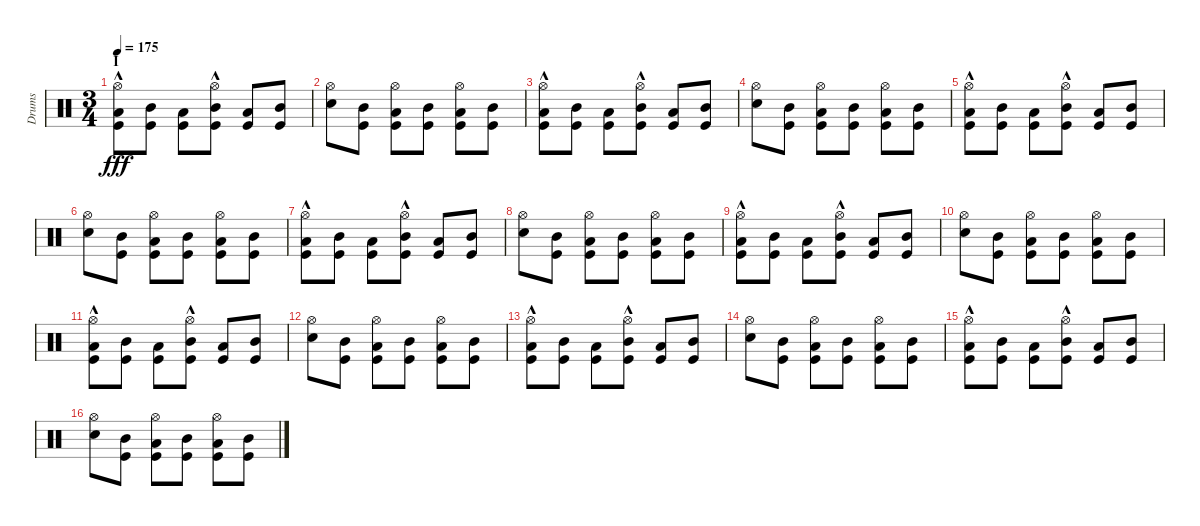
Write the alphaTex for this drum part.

\track ("Drums" "Drums") {instrument percussion}
\staff {score}
\articulation defaults
\ts (3 4)
\section ("" "I")
\tempo 175
\clef neutral
\ks c
("Hi-Hat (open)" "Low Tom (hit)"{hac} "Kick (hit)").8{dy fff} ("Mid Tom (hit)" "Kick (hit)").8 ("Low Tom (hit)" "Kick (hit)").8 ("Hi-Hat (open)" "Mid Tom (hit)"{hac} "Kick (hit)").8 ("Low Tom (hit)" "Kick (hit)").8 ("Mid Tom (hit)" "Kick (hit)").8 |
("Hi-Hat (open)" "Snare (hit) 2").8 ("Mid Tom (hit)" "Kick (hit)").8 ("Hi-Hat (open)" "Low Tom (hit)" "Kick (hit)").8 ("Mid Tom (hit)" "Kick (hit)").8 ("Hi-Hat (open)" "Low Tom (hit)" "Kick (hit)").8 ("Mid Tom (hit)" "Kick (hit)").8 |
("Hi-Hat (open)" "Low Tom (hit)"{hac} "Kick (hit)").8 ("Mid Tom (hit)" "Kick (hit)").8 ("Low Tom (hit)" "Kick (hit)").8 ("Hi-Hat (open)" "Mid Tom (hit)"{hac} "Kick (hit)").8 ("Low Tom (hit)" "Kick (hit)").8 ("Mid Tom (hit)" "Kick (hit)").8 |
("Hi-Hat (open)" "Snare (hit) 2").8 ("Mid Tom (hit)" "Kick (hit)").8 ("Hi-Hat (open)" "Low Tom (hit)" "Kick (hit)").8 ("Mid Tom (hit)" "Kick (hit)").8 ("Hi-Hat (open)" "Low Tom (hit)" "Kick (hit)").8 ("Mid Tom (hit)" "Kick (hit)").8 |
("Hi-Hat (open)" "Low Tom (hit)"{hac} "Kick (hit)").8 ("Mid Tom (hit)" "Kick (hit)").8 ("Low Tom (hit)" "Kick (hit)").8 ("Hi-Hat (open)" "Mid Tom (hit)"{hac} "Kick (hit)").8 ("Low Tom (hit)" "Kick (hit)").8 ("Mid Tom (hit)" "Kick (hit)").8 |
("Hi-Hat (open)" "Snare (hit) 2").8 ("Mid Tom (hit)" "Kick (hit)").8 ("Hi-Hat (open)" "Low Tom (hit)" "Kick (hit)").8 ("Mid Tom (hit)" "Kick (hit)").8 ("Hi-Hat (open)" "Low Tom (hit)" "Kick (hit)").8 ("Mid Tom (hit)" "Kick (hit)").8 |
("Hi-Hat (open)" "Low Tom (hit)"{hac} "Kick (hit)").8 ("Mid Tom (hit)" "Kick (hit)").8 ("Low Tom (hit)" "Kick (hit)").8 ("Hi-Hat (open)" "Mid Tom (hit)"{hac} "Kick (hit)").8 ("Low Tom (hit)" "Kick (hit)").8 ("Mid Tom (hit)" "Kick (hit)").8 |
("Hi-Hat (open)" "Snare (hit) 2").8 ("Mid Tom (hit)" "Kick (hit)").8 ("Hi-Hat (open)" "Low Tom (hit)" "Kick (hit)").8 ("Mid Tom (hit)" "Kick (hit)").8 ("Hi-Hat (open)" "Low Tom (hit)" "Kick (hit)").8 ("Mid Tom (hit)" "Kick (hit)").8 |
("Hi-Hat (open)" "Low Tom (hit)"{hac} "Kick (hit)").8 ("Mid Tom (hit)" "Kick (hit)").8 ("Low Tom (hit)" "Kick (hit)").8 ("Hi-Hat (open)" "Mid Tom (hit)"{hac} "Kick (hit)").8 ("Low Tom (hit)" "Kick (hit)").8 ("Mid Tom (hit)" "Kick (hit)").8 |
("Hi-Hat (open)" "Snare (hit) 2").8 ("Mid Tom (hit)" "Kick (hit)").8 ("Hi-Hat (open)" "Low Tom (hit)" "Kick (hit)").8 ("Mid Tom (hit)" "Kick (hit)").8 ("Hi-Hat (open)" "Low Tom (hit)" "Kick (hit)").8 ("Mid Tom (hit)" "Kick (hit)").8 |
("Hi-Hat (open)" "Low Tom (hit)"{hac} "Kick (hit)").8 ("Mid Tom (hit)" "Kick (hit)").8 ("Low Tom (hit)" "Kick (hit)").8 ("Hi-Hat (open)" "Mid Tom (hit)"{hac} "Kick (hit)").8 ("Low Tom (hit)" "Kick (hit)").8 ("Mid Tom (hit)" "Kick (hit)").8 |
("Hi-Hat (open)" "Snare (hit) 2").8 ("Mid Tom (hit)" "Kick (hit)").8 ("Hi-Hat (open)" "Low Tom (hit)" "Kick (hit)").8 ("Mid Tom (hit)" "Kick (hit)").8 ("Hi-Hat (open)" "Low Tom (hit)" "Kick (hit)").8 ("Mid Tom (hit)" "Kick (hit)").8 |
("Hi-Hat (open)" "Low Tom (hit)"{hac} "Kick (hit)").8 ("Mid Tom (hit)" "Kick (hit)").8 ("Low Tom (hit)" "Kick (hit)").8 ("Hi-Hat (open)" "Mid Tom (hit)"{hac} "Kick (hit)").8 ("Low Tom (hit)" "Kick (hit)").8 ("Mid Tom (hit)" "Kick (hit)").8 |
("Hi-Hat (open)" "Snare (hit) 2").8 ("Mid Tom (hit)" "Kick (hit)").8 ("Hi-Hat (open)" "Low Tom (hit)" "Kick (hit)").8 ("Mid Tom (hit)" "Kick (hit)").8 ("Hi-Hat (open)" "Low Tom (hit)" "Kick (hit)").8 ("Mid Tom (hit)" "Kick (hit)").8 |
("Hi-Hat (open)" "Low Tom (hit)"{hac} "Kick (hit)").8 ("Mid Tom (hit)" "Kick (hit)").8 ("Low Tom (hit)" "Kick (hit)").8 ("Hi-Hat (open)" "Mid Tom (hit)"{hac} "Kick (hit)").8 ("Low Tom (hit)" "Kick (hit)").8 ("Mid Tom (hit)" "Kick (hit)").8 |
("Hi-Hat (open)" "Snare (hit) 2").8 ("Mid Tom (hit)" "Kick (hit)").8 ("Hi-Hat (open)" "Low Tom (hit)" "Kick (hit)").8 ("Mid Tom (hit)" "Kick (hit)").8 ("Hi-Hat (open)" "Low Tom (hit)" "Kick (hit)").8 ("Mid Tom (hit)" "Kick (hit)").8
